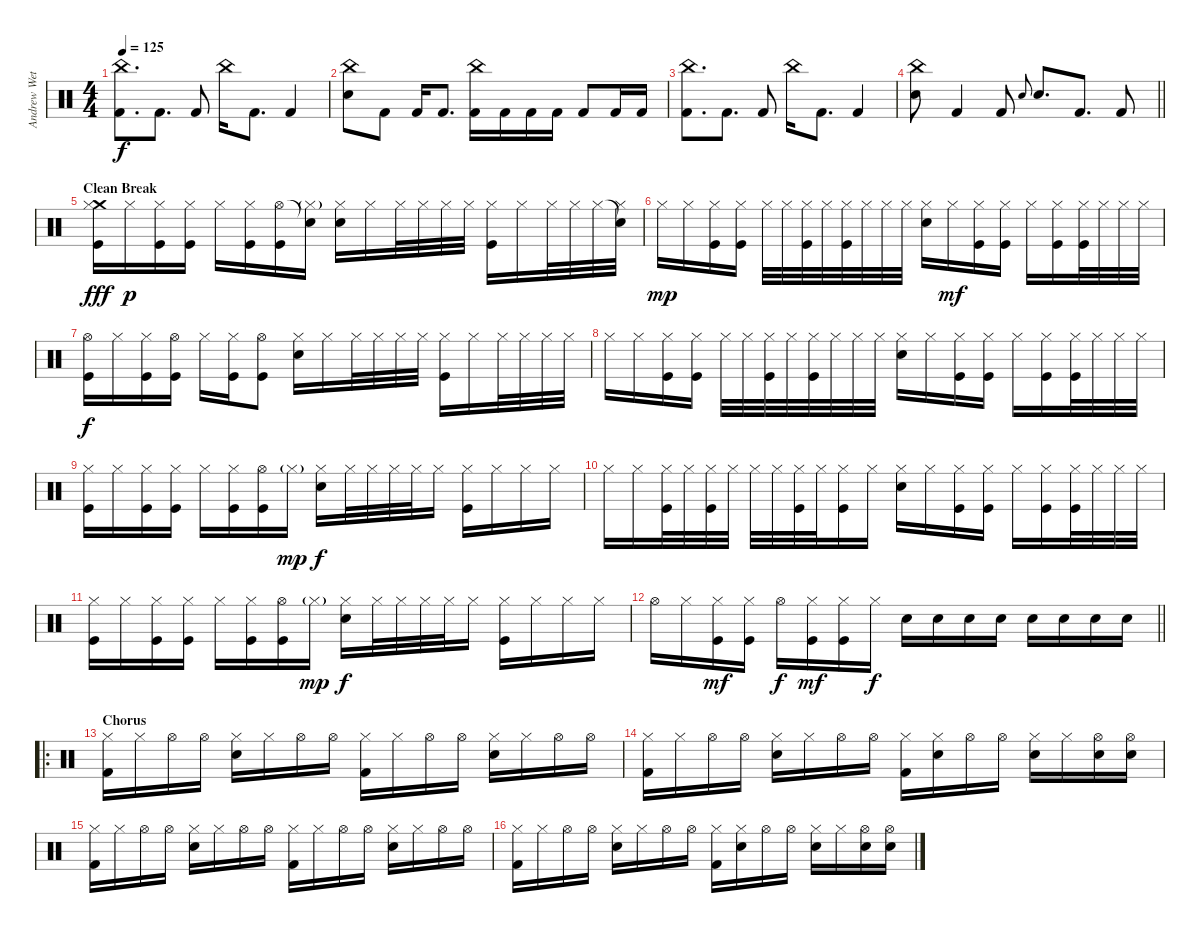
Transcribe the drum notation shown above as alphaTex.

\track ("Andrew Wetzel" "Andrew Wet") {instrument percussion}
\staff {score}
\articulation defaults
\ts (4 4)
\tempo 125
\clef neutral
\ks c
("China (hit)" "Kick (hit) 2").8{d dy f} "Kick (hit) 2".8{d} "Kick (hit) 2".8 "China (hit)".16 "Kick (hit) 2".8{d} "Kick (hit) 2".4 |
("China (hit)" "Snare (hit) 2").8 "Kick (hit) 2".8 "Kick (hit) 2".16 "Kick (hit) 2".8{d} ("China (hit)" "Kick (hit) 2").16 "Kick (hit) 2".16 "Kick (hit) 2".16 "Kick (hit) 2".16 "Kick (hit) 2".8 "Kick (hit) 2".16 "Kick (hit) 2".16 |
("China (hit)" "Kick (hit) 2").8{d} "Kick (hit) 2".8{d} "Kick (hit) 2".8 "China (hit)".16 "Kick (hit) 2".8{d} "Kick (hit) 2".4 |
\barLineRight lightlight
("China (hit)" "Snare (hit) 2").8 "Kick (hit) 2".4 "Kick (hit) 2".8 "Snare (hit) 2".8{gr onbeat} "Snare (hit) 2".8{d} "Kick (hit) 2".8{d} "Kick (hit) 2".8 |
\section ("" "Clean Break")
("Crash medium (hit)" "Hi-Hat (closed)" "Kick (hit)").16{dy fff} "Hi-Hat (closed)".16{dy p volume 7} ("Hi-Hat (closed)" "Kick (hit)").16 ("Hi-Hat (closed)" "Kick (hit)").16 "Hi-Hat (closed)".16 ("Hi-Hat (closed)" "Kick (hit)").16 ("Hi-Hat (open)" "Kick (hit)").16 ("Snare (hit)"{t} "Hi-Hat (closed)"{g}).16 ("Hi-Hat (closed)" "Snare (hit) 2").16 "Hi-Hat (closed)".16 "Hi-Hat (closed)".32 "Hi-Hat (closed)".32 "Hi-Hat (closed)".32 "Hi-Hat (closed)".32 ("Hi-Hat (closed)" "Kick (hit)").16 "Hi-Hat (closed)".16 "Hi-Hat (closed)".32 "Hi-Hat (closed)".32 "Hi-Hat (closed)".32 ("Snare (hit)"{t} "Hi-Hat (closed)").32 |
"Hi-Hat (closed)".16{dy mp} "Hi-Hat (closed)".16 ("Hi-Hat (closed)" "Kick (hit)").16 ("Hi-Hat (closed)" "Kick (hit)").16 "Hi-Hat (closed)".32 "Hi-Hat (closed)".32 ("Hi-Hat (closed)" "Kick (hit)").32 "Hi-Hat (closed)".32 ("Hi-Hat (closed)" "Kick (hit)").32 "Hi-Hat (closed)".32 "Hi-Hat (closed)".32 "Hi-Hat (closed)".32 ("Hi-Hat (closed)" "Snare (hit) 2").16 "Hi-Hat (closed)".16{dy mf} ("Hi-Hat (closed)" "Kick (hit)").16 ("Hi-Hat (closed)" "Kick (hit)").16 "Hi-Hat (closed)".16 ("Hi-Hat (closed)" "Kick (hit)").16 ("Hi-Hat (closed)" "Kick (hit)").32 "Hi-Hat (closed)".32 "Hi-Hat (closed)".32 "Hi-Hat (closed)".32 |
("Hi-Hat (open)" "Kick (hit)").16{dy f volume 10} "Hi-Hat (closed)".16 ("Hi-Hat (closed)" "Kick (hit)").16 ("Hi-Hat (open)" "Kick (hit)").16 "Hi-Hat (closed)".16 ("Hi-Hat (closed)" "Kick (hit)").16 ("Hi-Hat (open)" "Kick (hit)").8 ("Hi-Hat (closed)" "Snare (hit) 2").16 "Hi-Hat (closed)".16 "Hi-Hat (closed)".32 "Hi-Hat (closed)".32 "Hi-Hat (closed)".32 "Hi-Hat (closed)".32 ("Hi-Hat (closed)" "Kick (hit)").16 "Hi-Hat (closed)".16 "Hi-Hat (closed)".32 "Hi-Hat (closed)".32 "Hi-Hat (closed)".32 "Hi-Hat (closed)".32 |
"Hi-Hat (closed)".16 "Hi-Hat (closed)".16 ("Hi-Hat (closed)" "Kick (hit)").16 ("Hi-Hat (closed)" "Kick (hit)").16 "Hi-Hat (closed)".32 "Hi-Hat (closed)".32 ("Hi-Hat (closed)" "Kick (hit)").32 "Hi-Hat (closed)".32 ("Hi-Hat (closed)" "Kick (hit)").32 "Hi-Hat (closed)".32 "Hi-Hat (closed)".32 "Hi-Hat (closed)".32 ("Hi-Hat (closed)" "Snare (hit) 2").16 "Hi-Hat (closed)".16 ("Hi-Hat (closed)" "Kick (hit)").16 ("Hi-Hat (closed)" "Kick (hit)").16 "Hi-Hat (closed)".16 ("Hi-Hat (closed)" "Kick (hit)").16 ("Hi-Hat (closed)" "Kick (hit)").32 "Hi-Hat (closed)".32 "Hi-Hat (closed)".32 "Hi-Hat (closed)".32 |
("Hi-Hat (closed)" "Kick (hit)").16{volume 13} "Hi-Hat (closed)".16 ("Hi-Hat (closed)" "Kick (hit)").16 ("Hi-Hat (closed)" "Kick (hit)").16 "Hi-Hat (closed)".16 ("Hi-Hat (closed)" "Kick (hit)").16 ("Hi-Hat (open)" "Kick (hit)").16 "Hi-Hat (closed)"{g}.16{dy mp} ("Hi-Hat (closed)" "Snare (hit) 2").16{dy f} "Hi-Hat (closed)".32 "Hi-Hat (closed)".32 "Hi-Hat (closed)".32 "Hi-Hat (closed)".32 "Hi-Hat (closed)".16 ("Hi-Hat (closed)" "Kick (hit)").16 "Hi-Hat (closed)".16 "Hi-Hat (closed)".16 "Hi-Hat (closed)".16 |
"Hi-Hat (closed)".16 "Hi-Hat (closed)".16 ("Hi-Hat (closed)" "Kick (hit)").32 "Hi-Hat (closed)".32 ("Hi-Hat (closed)" "Kick (hit)").32 "Hi-Hat (closed)".32 "Hi-Hat (closed)".32 "Hi-Hat (closed)".32 ("Hi-Hat (closed)" "Kick (hit)").32 "Hi-Hat (closed)".32 ("Hi-Hat (closed)" "Kick (hit)").16 "Hi-Hat (closed)".16 ("Hi-Hat (closed)" "Snare (hit) 2").16 "Hi-Hat (closed)".16 ("Hi-Hat (closed)" "Kick (hit)").16 ("Hi-Hat (closed)" "Kick (hit)").16 "Hi-Hat (closed)".16 ("Hi-Hat (closed)" "Kick (hit)").16 ("Hi-Hat (closed)" "Kick (hit)").32 "Hi-Hat (closed)".32 "Hi-Hat (closed)".32 "Hi-Hat (closed)".32 |
("Hi-Hat (closed)" "Kick (hit)").16 "Hi-Hat (closed)".16 ("Hi-Hat (closed)" "Kick (hit)").16 ("Hi-Hat (closed)" "Kick (hit)").16 "Hi-Hat (closed)".16 ("Hi-Hat (closed)" "Kick (hit)").16 ("Hi-Hat (open)" "Kick (hit)").16 "Hi-Hat (closed)"{g}.16{dy mp} ("Hi-Hat (closed)" "Snare (hit) 2").16{dy f} "Hi-Hat (closed)".32 "Hi-Hat (closed)".32 "Hi-Hat (closed)".32 "Hi-Hat (closed)".32 "Hi-Hat (closed)".16 ("Hi-Hat (closed)" "Kick (hit)").16 "Hi-Hat (closed)".16 "Hi-Hat (closed)".16 "Hi-Hat (closed)".16 |
\barLineRight lightlight "Hi-Hat (open)".16 "Hi-Hat (closed)".16
("Hi-Hat (closed)" "Kick (hit)").16{dy mf} ("Hi-Hat (closed)" "Kick (hit)").16 "Hi-Hat (open)".16{dy f} ("Hi-Hat (closed)" "Kick (hit)").16{dy mf} ("Hi-Hat (closed)" "Kick (hit)").16 "Hi-Hat (closed)".16{dy f} "Snare (hit) 2".16 "Snare (hit) 2".16 "Snare (hit) 2".16 "Snare (hit) 2".16 "Snare (hit) 2".16 "Snare (hit) 2".16 "Snare (hit) 2".16 "Snare (hit) 2".16 |
\ro
\section ("" "Chorus")
("Hi-Hat (closed)" "Kick (hit) 2").16 "Hi-Hat (closed)".16 "Hi-Hat (open)".16 "Hi-Hat (open)".16 ("Hi-Hat (closed)" "Snare (hit) 2").16 "Hi-Hat (closed)".16 "Hi-Hat (open)".16 "Hi-Hat (open)".16 ("Hi-Hat (closed)" "Kick (hit) 2").16 "Hi-Hat (closed)".16 "Hi-Hat (open)".16 "Hi-Hat (open)".16 ("Hi-Hat (closed)" "Snare (hit) 2").16 "Hi-Hat (closed)".16 "Hi-Hat (open)".16 "Hi-Hat (open)".16 |
("Hi-Hat (closed)" "Kick (hit) 2").16 "Hi-Hat (closed)".16 "Hi-Hat (open)".16 "Hi-Hat (open)".16 ("Hi-Hat (closed)" "Snare (hit) 2").16 "Hi-Hat (closed)".16 "Hi-Hat (open)".16 "Hi-Hat (open)".16 ("Hi-Hat (closed)" "Kick (hit) 2").16 ("Hi-Hat (closed)" "Snare (hit) 2").16 "Hi-Hat (open)".16 "Hi-Hat (open)".16 ("Hi-Hat (closed)" "Snare (hit) 2").16 "Hi-Hat (closed)".16 ("Hi-Hat (open)" "Snare (hit) 2").16 ("Hi-Hat (open)" "Snare (hit) 2").16 |
("Hi-Hat (closed)" "Kick (hit) 2").16 "Hi-Hat (closed)".16 "Hi-Hat (open)".16 "Hi-Hat (open)".16 ("Hi-Hat (closed)" "Snare (hit) 2").16 "Hi-Hat (closed)".16 "Hi-Hat (open)".16 "Hi-Hat (open)".16 ("Hi-Hat (closed)" "Kick (hit) 2").16 "Hi-Hat (closed)".16 "Hi-Hat (open)".16 "Hi-Hat (open)".16 ("Hi-Hat (closed)" "Snare (hit) 2").16 "Hi-Hat (closed)".16 "Hi-Hat (open)".16 "Hi-Hat (open)".16 |
("Hi-Hat (closed)" "Kick (hit) 2").16 "Hi-Hat (closed)".16 "Hi-Hat (open)".16 "Hi-Hat (open)".16 ("Hi-Hat (closed)" "Snare (hit) 2").16 "Hi-Hat (closed)".16 "Hi-Hat (open)".16 "Hi-Hat (open)".16 ("Hi-Hat (closed)" "Kick (hit) 2").16 ("Hi-Hat (closed)" "Snare (hit) 2").16 "Hi-Hat (open)".16 "Hi-Hat (open)".16 ("Hi-Hat (closed)" "Snare (hit) 2").16 "Hi-Hat (closed)".16 ("Hi-Hat (open)" "Snare (hit) 2").16 ("Hi-Hat (open)" "Snare (hit) 2").16
